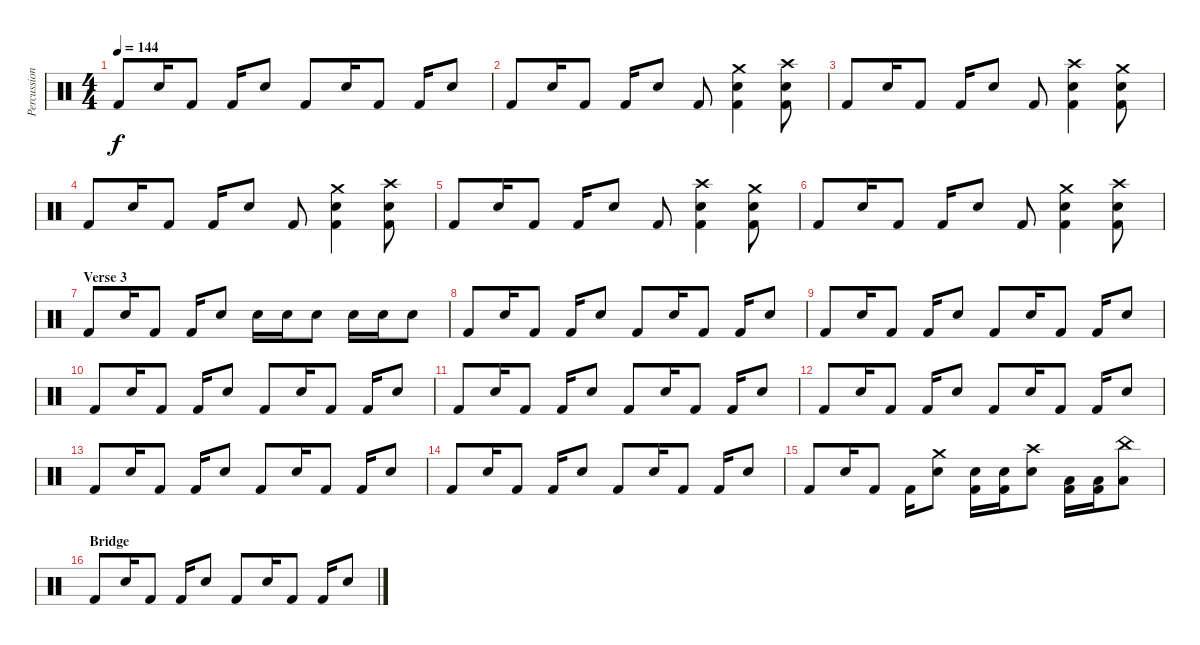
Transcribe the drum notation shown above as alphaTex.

\track ("Percussion" "Percussion") {instrument percussion}
\staff {score}
\articulation defaults
\ts (4 4)
\tempo 144
\clef neutral
\ks c "Kick (hit) 2".8{dy f} "Snare (hit) 2".16 "Kick (hit) 2".8 "Kick (hit) 2".16 "Snare (hit) 2".8 "Kick (hit) 2".8 "Snare (hit) 2".16 "Kick (hit) 2".8 "Kick (hit) 2".16 "Snare (hit) 2".8
|
"Kick (hit) 2".8 "Snare (hit) 2".16 "Kick (hit) 2".8 "Kick (hit) 2".16 "Snare (hit) 2".8 "Kick (hit) 2".8 ("Crash medium (hit)" "Snare (hit) 2" "Kick (hit) 2").4 ("Crash high (hit)" "Snare (hit) 2" "Kick (hit) 2").8 |
"Kick (hit) 2".8 "Snare (hit) 2".16 "Kick (hit) 2".8 "Kick (hit) 2".16 "Snare (hit) 2".8 "Kick (hit) 2".8 ("Crash high (hit)" "Snare (hit) 2" "Kick (hit) 2").4 ("Crash medium (hit)" "Snare (hit) 2" "Kick (hit) 2").8 |
"Kick (hit) 2".8 "Snare (hit) 2".16 "Kick (hit) 2".8 "Kick (hit) 2".16 "Snare (hit) 2".8 "Kick (hit) 2".8 ("Crash medium (hit)" "Snare (hit) 2" "Kick (hit) 2").4 ("Crash high (hit)" "Snare (hit) 2" "Kick (hit) 2").8 |
"Kick (hit) 2".8 "Snare (hit) 2".16 "Kick (hit) 2".8 "Kick (hit) 2".16 "Snare (hit) 2".8 "Kick (hit) 2".8 ("Crash high (hit)" "Snare (hit) 2" "Kick (hit) 2").4 ("Crash medium (hit)" "Snare (hit) 2" "Kick (hit) 2").8 |
"Kick (hit) 2".8 "Snare (hit) 2".16 "Kick (hit) 2".8 "Kick (hit) 2".16 "Snare (hit) 2".8 "Kick (hit) 2".8 ("Crash medium (hit)" "Snare (hit) 2" "Kick (hit) 2").4 ("Crash high (hit)" "Snare (hit) 2" "Kick (hit) 2").8 |
\section ("" "Verse 3")
"Kick (hit) 2".8 "Snare (hit) 2".16 "Kick (hit) 2".8 "Kick (hit) 2".16 "Snare (hit) 2".8 "Snare (hit) 2".16 "Snare (hit) 2".16 "Snare (hit) 2".8 "Snare (hit) 2".16 "Snare (hit) 2".16 "Snare (hit) 2".8 |
"Kick (hit) 2".8 "Snare (hit) 2".16 "Kick (hit) 2".8 "Kick (hit) 2".16 "Snare (hit) 2".8 "Kick (hit) 2".8 "Snare (hit) 2".16 "Kick (hit) 2".8 "Kick (hit) 2".16 "Snare (hit) 2".8 |
"Kick (hit) 2".8 "Snare (hit) 2".16 "Kick (hit) 2".8 "Kick (hit) 2".16 "Snare (hit) 2".8 "Kick (hit) 2".8 "Snare (hit) 2".16 "Kick (hit) 2".8 "Kick (hit) 2".16 "Snare (hit) 2".8 |
"Kick (hit) 2".8 "Snare (hit) 2".16 "Kick (hit) 2".8 "Kick (hit) 2".16 "Snare (hit) 2".8 "Kick (hit) 2".8 "Snare (hit) 2".16 "Kick (hit) 2".8 "Kick (hit) 2".16 "Snare (hit) 2".8 |
"Kick (hit) 2".8 "Snare (hit) 2".16 "Kick (hit) 2".8 "Kick (hit) 2".16 "Snare (hit) 2".8 "Kick (hit) 2".8 "Snare (hit) 2".16 "Kick (hit) 2".8 "Kick (hit) 2".16 "Snare (hit) 2".8 |
"Kick (hit) 2".8 "Snare (hit) 2".16 "Kick (hit) 2".8 "Kick (hit) 2".16 "Snare (hit) 2".8 "Kick (hit) 2".8 "Snare (hit) 2".16 "Kick (hit) 2".8 "Kick (hit) 2".16 "Snare (hit) 2".8 |
"Kick (hit) 2".8 "Snare (hit) 2".16 "Kick (hit) 2".8 "Kick (hit) 2".16 "Snare (hit) 2".8 "Kick (hit) 2".8 "Snare (hit) 2".16 "Kick (hit) 2".8 "Kick (hit) 2".16 "Snare (hit) 2".8 |
"Kick (hit) 2".8 "Snare (hit) 2".16 "Kick (hit) 2".8 "Kick (hit) 2".16 "Snare (hit) 2".8 "Kick (hit) 2".8 "Snare (hit) 2".16 "Kick (hit) 2".8 "Kick (hit) 2".16 "Snare (hit) 2".8 |
"Kick (hit) 2".8 "Snare (hit) 2".16 "Kick (hit) 2".8 "Kick (hit) 2".16 ("Crash medium (hit)" "Snare (hit) 2").8 ("Snare (hit) 2" "Kick (hit) 2").16 ("Snare (hit) 2" "Kick (hit) 2").16 ("Crash high (hit)" "Snare (hit) 2").8 ("Low Tom (hit)" "Kick (hit) 2").16 ("Low Tom (hit)" "Kick (hit) 2").16 ("China (hit)" "Low Tom (hit)").8 |
\section ("" "Bridge")
"Kick (hit) 2".8 "Snare (hit) 2".16 "Kick (hit) 2".8 "Kick (hit) 2".16 "Snare (hit) 2".8 "Kick (hit) 2".8 "Snare (hit) 2".16 "Kick (hit) 2".8 "Kick (hit) 2".16 "Snare (hit) 2".8
